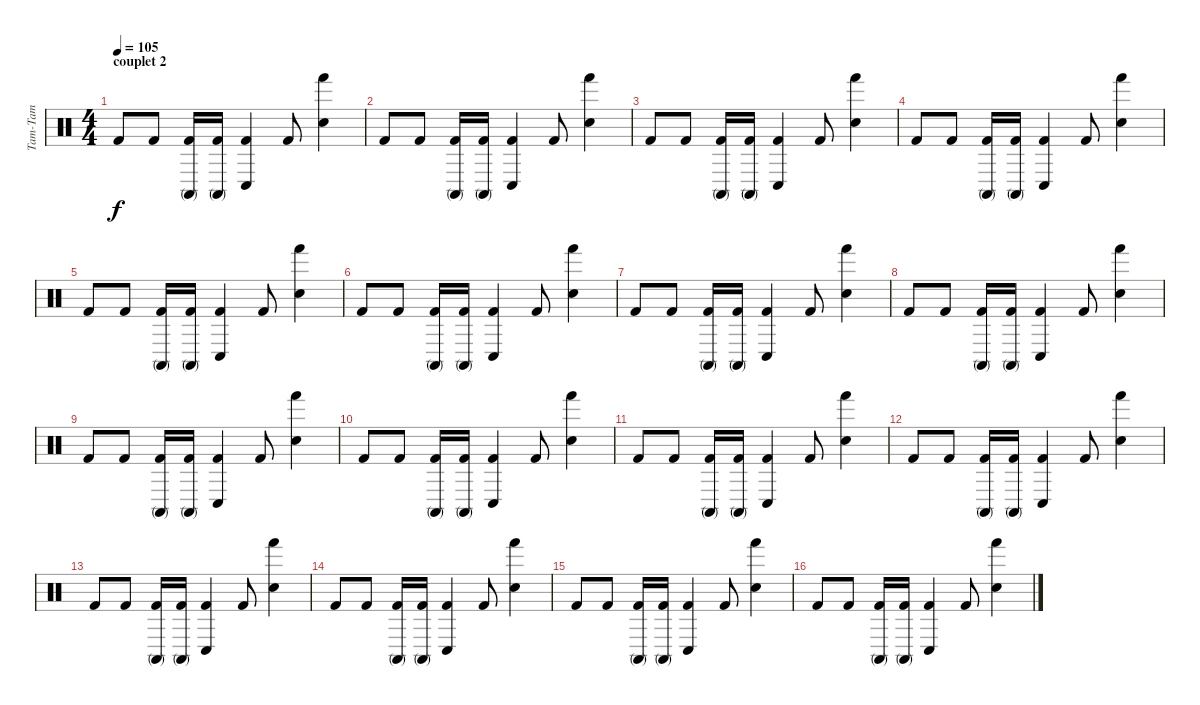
\track ("Tam-Tam" "Tam-Tam") {instrument percussion}
\staff {score}
\articulation defaults
\ts (4 4)
\section ("" "couplet 2")
\tempo 105
\clef neutral
\ks c "Kick (hit) 2".8{dy f} "Kick (hit) 2".8
("Conga high (mute)" "Kick (hit) 2").16 ("Conga high (mute)" "Kick (hit) 2").16 ("Conga low (hit)" "Kick (hit) 2").4 "Kick (hit) 2".8 ("Hand (hit)" "Electric Snare (hit)").4 |
"Kick (hit) 2".8 "Kick (hit) 2".8 ("Conga high (mute)" "Kick (hit) 2").16 ("Conga high (mute)" "Kick (hit) 2").16 ("Conga low (hit)" "Kick (hit) 2").4 "Kick (hit) 2".8 ("Hand (hit)" "Electric Snare (hit)").4 |
"Kick (hit) 2".8 "Kick (hit) 2".8 ("Conga high (mute)" "Kick (hit) 2").16 ("Conga high (mute)" "Kick (hit) 2").16 ("Conga low (hit)" "Kick (hit) 2").4 "Kick (hit) 2".8 ("Hand (hit)" "Electric Snare (hit)").4 |
"Kick (hit) 2".8 "Kick (hit) 2".8 ("Conga high (mute)" "Kick (hit) 2").16 ("Conga high (mute)" "Kick (hit) 2").16 ("Conga low (hit)" "Kick (hit) 2").4 "Kick (hit) 2".8 ("Hand (hit)" "Electric Snare (hit)").4 |
"Kick (hit) 2".8 "Kick (hit) 2".8 ("Conga high (mute)" "Kick (hit) 2").16 ("Conga high (mute)" "Kick (hit) 2").16 ("Conga low (hit)" "Kick (hit) 2").4 "Kick (hit) 2".8 ("Hand (hit)" "Electric Snare (hit)").4 |
"Kick (hit) 2".8 "Kick (hit) 2".8 ("Conga high (mute)" "Kick (hit) 2").16 ("Conga high (mute)" "Kick (hit) 2").16 ("Conga low (hit)" "Kick (hit) 2").4 "Kick (hit) 2".8 ("Hand (hit)" "Electric Snare (hit)").4 |
"Kick (hit) 2".8 "Kick (hit) 2".8 ("Conga high (mute)" "Kick (hit) 2").16 ("Conga high (mute)" "Kick (hit) 2").16 ("Conga low (hit)" "Kick (hit) 2").4 "Kick (hit) 2".8 ("Hand (hit)" "Electric Snare (hit)").4 |
"Kick (hit) 2".8 "Kick (hit) 2".8 ("Conga high (mute)" "Kick (hit) 2").16 ("Conga high (mute)" "Kick (hit) 2").16 ("Conga low (hit)" "Kick (hit) 2").4 "Kick (hit) 2".8 ("Hand (hit)" "Electric Snare (hit)").4 |
"Kick (hit) 2".8 "Kick (hit) 2".8 ("Conga high (mute)" "Kick (hit) 2").16 ("Conga high (mute)" "Kick (hit) 2").16 ("Conga low (hit)" "Kick (hit) 2").4 "Kick (hit) 2".8 ("Hand (hit)" "Electric Snare (hit)").4 |
"Kick (hit) 2".8 "Kick (hit) 2".8 ("Conga high (mute)" "Kick (hit) 2").16 ("Conga high (mute)" "Kick (hit) 2").16 ("Conga low (hit)" "Kick (hit) 2").4 "Kick (hit) 2".8 ("Hand (hit)" "Electric Snare (hit)").4 |
"Kick (hit) 2".8 "Kick (hit) 2".8 ("Conga high (mute)" "Kick (hit) 2").16 ("Conga high (mute)" "Kick (hit) 2").16 ("Conga low (hit)" "Kick (hit) 2").4 "Kick (hit) 2".8 ("Hand (hit)" "Electric Snare (hit)").4 |
"Kick (hit) 2".8 "Kick (hit) 2".8 ("Conga high (mute)" "Kick (hit) 2").16 ("Conga high (mute)" "Kick (hit) 2").16 ("Conga low (hit)" "Kick (hit) 2").4 "Kick (hit) 2".8 ("Hand (hit)" "Electric Snare (hit)").4 |
"Kick (hit) 2".8 "Kick (hit) 2".8 ("Conga high (mute)" "Kick (hit) 2").16 ("Conga high (mute)" "Kick (hit) 2").16 ("Conga low (hit)" "Kick (hit) 2").4 "Kick (hit) 2".8 ("Hand (hit)" "Electric Snare (hit)").4 |
"Kick (hit) 2".8 "Kick (hit) 2".8 ("Conga high (mute)" "Kick (hit) 2").16 ("Conga high (mute)" "Kick (hit) 2").16 ("Conga low (hit)" "Kick (hit) 2").4 "Kick (hit) 2".8 ("Hand (hit)" "Electric Snare (hit)").4 |
"Kick (hit) 2".8 "Kick (hit) 2".8 ("Conga high (mute)" "Kick (hit) 2").16 ("Conga high (mute)" "Kick (hit) 2").16 ("Conga low (hit)" "Kick (hit) 2").4 "Kick (hit) 2".8 ("Hand (hit)" "Electric Snare (hit)").4 |
"Kick (hit) 2".8 "Kick (hit) 2".8 ("Conga high (mute)" "Kick (hit) 2").16 ("Conga high (mute)" "Kick (hit) 2").16 ("Conga low (hit)" "Kick (hit) 2").4 "Kick (hit) 2".8 ("Hand (hit)" "Electric Snare (hit)").4
